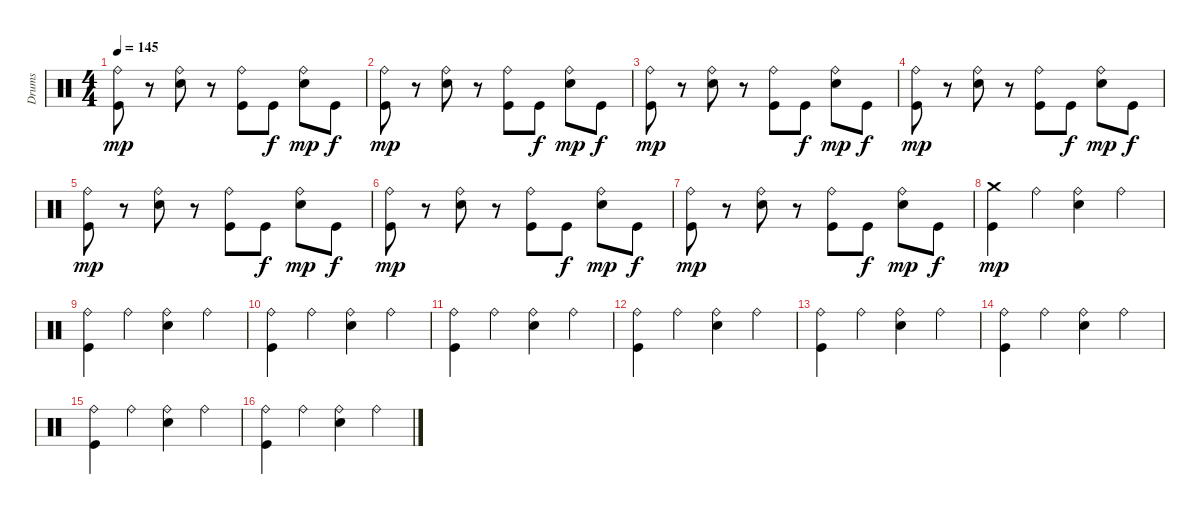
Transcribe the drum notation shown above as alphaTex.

\track ("Drums" "Drums") {instrument percussion}
\staff {score}
\articulation defaults
\ts (4 4)
\tempo 145
\clef neutral
\ks c
("Kick (hit)" "Ride (bell)").8{dy mp} r.8 ("Snare (hit) 2" "Ride (bell)").8 r.8 ("Kick (hit)" "Ride (bell)").8 "Kick (hit)".8{dy f} ("Snare (hit) 2" "Ride (bell)").8{dy mp} "Kick (hit)".8{dy f} |
("Kick (hit)" "Ride (bell)").8{dy mp} r.8 ("Snare (hit) 2" "Ride (bell)").8 r.8 ("Kick (hit)" "Ride (bell)").8 "Kick (hit)".8{dy f} ("Snare (hit) 2" "Ride (bell)").8{dy mp} "Kick (hit)".8{dy f} |
("Kick (hit)" "Ride (bell)").8{dy mp} r.8 ("Snare (hit) 2" "Ride (bell)").8 r.8 ("Kick (hit)" "Ride (bell)").8 "Kick (hit)".8{dy f} ("Snare (hit) 2" "Ride (bell)").8{dy mp} "Kick (hit)".8{dy f} |
("Kick (hit)" "Ride (bell)").8{dy mp} r.8 ("Snare (hit) 2" "Ride (bell)").8 r.8 ("Kick (hit)" "Ride (bell)").8 "Kick (hit)".8{dy f} ("Snare (hit) 2" "Ride (bell)").8{dy mp} "Kick (hit)".8{dy f} |
("Kick (hit)" "Ride (bell)").8{dy mp} r.8 ("Snare (hit) 2" "Ride (bell)").8 r.8 ("Kick (hit)" "Ride (bell)").8 "Kick (hit)".8{dy f} ("Snare (hit) 2" "Ride (bell)").8{dy mp} "Kick (hit)".8{dy f} |
("Kick (hit)" "Ride (bell)").8{dy mp} r.8 ("Snare (hit) 2" "Ride (bell)").8 r.8 ("Kick (hit)" "Ride (bell)").8 "Kick (hit)".8{dy f} ("Snare (hit) 2" "Ride (bell)").8{dy mp} "Kick (hit)".8{dy f} |
("Kick (hit)" "Ride (bell)").8{dy mp} r.8 ("Snare (hit) 2" "Ride (bell)").8 r.8 ("Kick (hit)" "Ride (bell)").8 "Kick (hit)".8{dy f} ("Snare (hit) 2" "Ride (bell)").8{dy mp} "Kick (hit)".8{dy f} |
("Kick (hit)" "Crash medium (hit)").4{dy mp} "Ride (bell)".4 ("Snare (hit) 2" "Ride (bell)").4 "Ride (bell)".4 |
("Kick (hit)" "Ride (bell)").4 "Ride (bell)".4 ("Snare (hit) 2" "Ride (bell)").4 "Ride (bell)".4 |
("Kick (hit)" "Ride (bell)").4 "Ride (bell)".4 ("Snare (hit) 2" "Ride (bell)").4 "Ride (bell)".4 |
("Kick (hit)" "Ride (bell)").4 "Ride (bell)".4 ("Snare (hit) 2" "Ride (bell)").4 "Ride (bell)".4 |
("Kick (hit)" "Ride (bell)").4 "Ride (bell)".4 ("Snare (hit) 2" "Ride (bell)").4 "Ride (bell)".4 |
("Kick (hit)" "Ride (bell)").4 "Ride (bell)".4 ("Snare (hit) 2" "Ride (bell)").4 "Ride (bell)".4 |
("Kick (hit)" "Ride (bell)").4 "Ride (bell)".4 ("Snare (hit) 2" "Ride (bell)").4 "Ride (bell)".4 |
("Kick (hit)" "Ride (bell)").4 "Ride (bell)".4 ("Snare (hit) 2" "Ride (bell)").4 "Ride (bell)".4 |
("Kick (hit)" "Ride (bell)").4 "Ride (bell)".4 ("Snare (hit) 2" "Ride (bell)").4 "Ride (bell)".4
